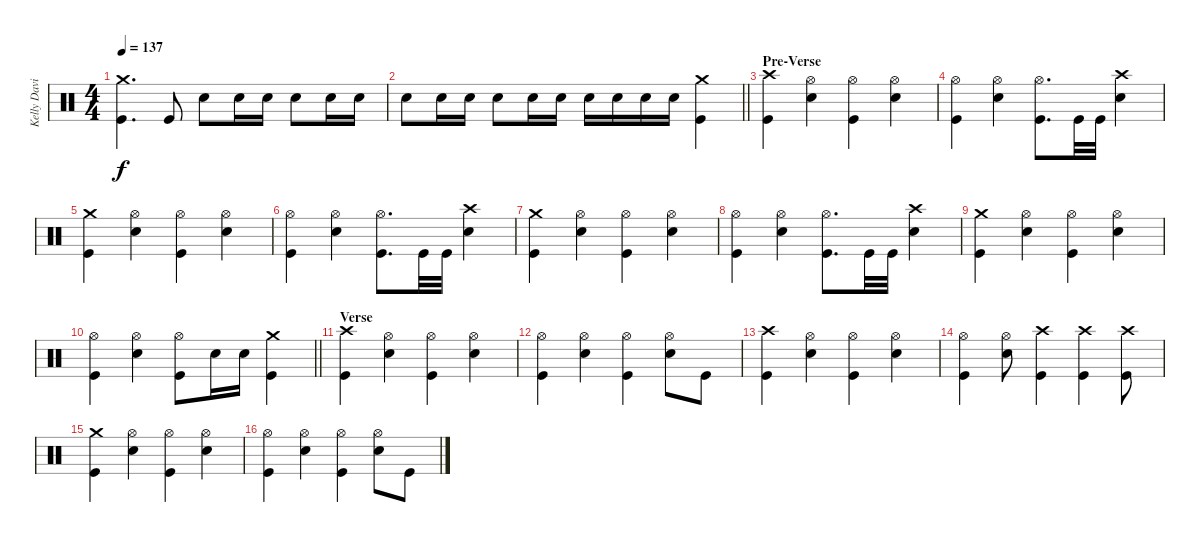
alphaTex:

\track ("Kelly David Smith" "Kelly Davi") {instrument percussion}
\staff {score}
\articulation defaults
\ts (4 4)
\tempo 137
\clef neutral
\ks c
("Crash medium (hit)" "Kick (hit)").4{d dy f} "Kick (hit)".8 "Electric Snare (hit)".8 "Electric Snare (hit)".16 "Electric Snare (hit)".16 "Electric Snare (hit)".8 "Electric Snare (hit)".16 "Electric Snare (hit)".16 |
\barLineRight lightlight "Electric Snare (hit)".8 "Electric Snare (hit)".16 "Electric Snare (hit)".16 "Electric Snare (hit)".8 "Electric Snare (hit)".16 "Electric Snare (hit)".16 "Electric Snare (hit)".16 "Electric Snare (hit)".16 "Electric Snare (hit)".16 "Electric Snare (hit)".16
("Crash medium (hit)" "Kick (hit)").4 |
\section ("" "Pre-Verse")
("Crash high (hit)" "Kick (hit)").4 ("Hi-Hat (open)" "Electric Snare (hit)").4 ("Hi-Hat (open)" "Kick (hit)").4 ("Hi-Hat (open)" "Electric Snare (hit)").4 |
("Hi-Hat (open)" "Kick (hit)").4 ("Hi-Hat (open)" "Electric Snare (hit)").4 ("Hi-Hat (open)" "Kick (hit)").8{d} "Kick (hit)".32 "Kick (hit)".32 ("Crash high (hit)" "Electric Snare (hit)").4 |
("Crash medium (hit)" "Kick (hit)").4 ("Hi-Hat (open)" "Electric Snare (hit)").4 ("Hi-Hat (open)" "Kick (hit)").4 ("Hi-Hat (open)" "Electric Snare (hit)").4 |
("Hi-Hat (open)" "Kick (hit)").4 ("Hi-Hat (open)" "Electric Snare (hit)").4 ("Hi-Hat (open)" "Kick (hit)").8{d} "Kick (hit)".32 "Kick (hit)".32 ("Crash high (hit)" "Electric Snare (hit)").4 |
("Crash medium (hit)" "Kick (hit)").4 ("Hi-Hat (open)" "Electric Snare (hit)").4 ("Hi-Hat (open)" "Kick (hit)").4 ("Hi-Hat (open)" "Electric Snare (hit)").4 |
("Hi-Hat (open)" "Kick (hit)").4 ("Hi-Hat (open)" "Electric Snare (hit)").4 ("Hi-Hat (open)" "Kick (hit)").8{d} "Kick (hit)".32 "Kick (hit)".32 ("Crash high (hit)" "Electric Snare (hit)").4 |
("Crash medium (hit)" "Kick (hit)").4 ("Hi-Hat (open)" "Electric Snare (hit)").4 ("Hi-Hat (open)" "Kick (hit)").4 ("Hi-Hat (open)" "Electric Snare (hit)").4 |
\barLineRight lightlight
("Hi-Hat (open)" "Kick (hit)").4 ("Hi-Hat (open)" "Electric Snare (hit)").4 ("Hi-Hat (open)" "Kick (hit)").8 "Electric Snare (hit)".16 "Electric Snare (hit)".16 ("Crash medium (hit)" "Kick (hit)").4 |
\section ("" "Verse")
("Crash high (hit)" "Kick (hit)").4 ("Hi-Hat (open)" "Electric Snare (hit)").4 ("Hi-Hat (open)" "Kick (hit)").4 ("Hi-Hat (open)" "Electric Snare (hit)").4 |
("Hi-Hat (open)" "Kick (hit)").4 ("Hi-Hat (open)" "Electric Snare (hit)").4 ("Hi-Hat (open)" "Kick (hit)").4 ("Hi-Hat (open)" "Electric Snare (hit)").8 "Kick (hit)".8 |
("Crash high (hit)" "Kick (hit)").4 ("Hi-Hat (open)" "Electric Snare (hit)").4 ("Hi-Hat (open)" "Kick (hit)").4 ("Hi-Hat (open)" "Electric Snare (hit)").4 |
("Hi-Hat (open)" "Kick (hit)").4 ("Hi-Hat (open)" "Electric Snare (hit)").8 ("Crash high (hit)" "Kick (hit)").4 ("Crash high (hit)" "Kick (hit)").4 ("Crash high (hit)" "Kick (hit)").8 |
("Crash medium (hit)" "Kick (hit)").4 ("Hi-Hat (open)" "Electric Snare (hit)").4 ("Hi-Hat (open)" "Kick (hit)").4 ("Hi-Hat (open)" "Electric Snare (hit)").4 |
("Hi-Hat (open)" "Kick (hit)").4 ("Hi-Hat (open)" "Electric Snare (hit)").4 ("Hi-Hat (open)" "Kick (hit)").4 ("Hi-Hat (open)" "Electric Snare (hit)").8 "Kick (hit)".8
